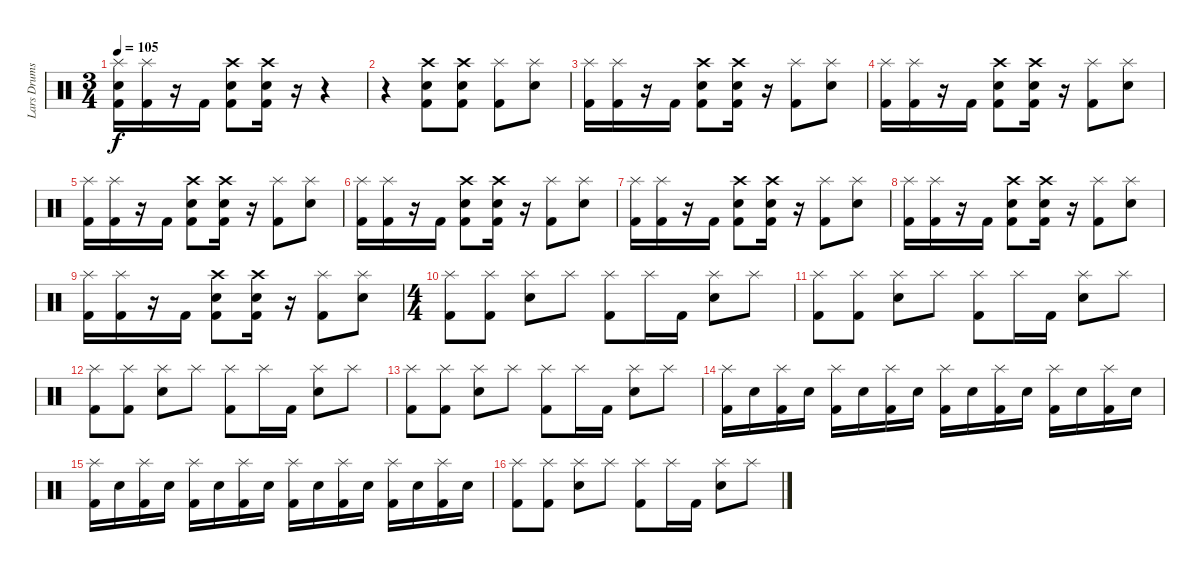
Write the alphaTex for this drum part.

\track ("Lars Drums" "Lars Drums") {instrument percussion}
\staff {score}
\articulation defaults
\ts (3 4)
\tempo 105
\clef neutral
\ks c
("Splash (hit)" "Snare (hit) 2" "Kick (hit) 2").16{dy f} ("Splash (hit)" "Kick (hit) 2").16 r.16 "Kick (hit) 2".16 ("Crash high (hit)" "Snare (hit) 2" "Kick (hit) 2").8 ("Crash high (hit)" "Snare (hit) 2" "Kick (hit) 2").16 r.16 r.4 |
r.4 ("Crash high (hit)" "Snare (hit) 2" "Kick (hit) 2").8 ("Crash high (hit)" "Snare (hit) 2" "Kick (hit) 2").8 ("Splash (hit)" "Kick (hit) 2").8 ("Splash (hit)" "Snare (hit) 2").8 |
("Splash (hit)" "Kick (hit) 2").16 ("Splash (hit)" "Kick (hit) 2").16 r.16 "Kick (hit) 2".16 ("Crash high (hit)" "Snare (hit) 2" "Kick (hit) 2").8 ("Crash high (hit)" "Snare (hit) 2" "Kick (hit) 2").16 r.16 ("Splash (hit)" "Kick (hit) 2").8 ("Splash (hit)" "Snare (hit) 2").8 |
("Splash (hit)" "Kick (hit) 2").16 ("Splash (hit)" "Kick (hit) 2").16 r.16 "Kick (hit) 2".16 ("Crash high (hit)" "Snare (hit) 2" "Kick (hit) 2").8 ("Crash high (hit)" "Snare (hit) 2" "Kick (hit) 2").16 r.16 ("Splash (hit)" "Kick (hit) 2").8 ("Splash (hit)" "Snare (hit) 2").8 |
("Splash (hit)" "Kick (hit) 2").16 ("Splash (hit)" "Kick (hit) 2").16 r.16 "Kick (hit) 2".16 ("Crash high (hit)" "Snare (hit) 2" "Kick (hit) 2").8 ("Crash high (hit)" "Snare (hit) 2" "Kick (hit) 2").16 r.16 ("Splash (hit)" "Kick (hit) 2").8 ("Splash (hit)" "Snare (hit) 2").8 |
("Splash (hit)" "Kick (hit) 2").16 ("Splash (hit)" "Kick (hit) 2").16 r.16 "Kick (hit) 2".16 ("Crash high (hit)" "Snare (hit) 2" "Kick (hit) 2").8 ("Crash high (hit)" "Snare (hit) 2" "Kick (hit) 2").16 r.16 ("Splash (hit)" "Kick (hit) 2").8 ("Splash (hit)" "Snare (hit) 2").8 |
("Splash (hit)" "Kick (hit) 2").16 ("Splash (hit)" "Kick (hit) 2").16 r.16 "Kick (hit) 2".16 ("Crash high (hit)" "Snare (hit) 2" "Kick (hit) 2").8 ("Crash high (hit)" "Snare (hit) 2" "Kick (hit) 2").16 r.16 ("Splash (hit)" "Kick (hit) 2").8 ("Splash (hit)" "Snare (hit) 2").8 |
("Splash (hit)" "Kick (hit) 2").16 ("Splash (hit)" "Kick (hit) 2").16 r.16 "Kick (hit) 2".16 ("Crash high (hit)" "Snare (hit) 2" "Kick (hit) 2").8 ("Crash high (hit)" "Snare (hit) 2" "Kick (hit) 2").16 r.16 ("Splash (hit)" "Kick (hit) 2").8 ("Splash (hit)" "Snare (hit) 2").8 |
("Splash (hit)" "Kick (hit) 2").16 ("Splash (hit)" "Kick (hit) 2").16 r.16 "Kick (hit) 2".16 ("Crash high (hit)" "Snare (hit) 2" "Kick (hit) 2").8 ("Crash high (hit)" "Snare (hit) 2" "Kick (hit) 2").16 r.16 ("Splash (hit)" "Kick (hit) 2").8 ("Splash (hit)" "Snare (hit) 2").8 |
\ts (4 4)
("Splash (hit)" "Kick (hit) 2").8 ("Splash (hit)" "Kick (hit) 2").8 ("Splash (hit)" "Snare (hit) 2").8 "Splash (hit)".8 ("Splash (hit)" "Kick (hit) 2").8 "Splash (hit)".16 "Kick (hit) 2".16 ("Splash (hit)" "Snare (hit) 2").8 "Splash (hit)".8 |
("Splash (hit)" "Kick (hit) 2").8 ("Splash (hit)" "Kick (hit) 2").8 ("Splash (hit)" "Snare (hit) 2").8 "Splash (hit)".8 ("Splash (hit)" "Kick (hit) 2").8 "Splash (hit)".16 "Kick (hit) 2".16 ("Splash (hit)" "Snare (hit) 2").8 "Splash (hit)".8 |
("Splash (hit)" "Kick (hit) 2").8 ("Splash (hit)" "Kick (hit) 2").8 ("Splash (hit)" "Snare (hit) 2").8 "Splash (hit)".8 ("Splash (hit)" "Kick (hit) 2").8 "Splash (hit)".16 "Kick (hit) 2".16 ("Splash (hit)" "Snare (hit) 2").8 "Splash (hit)".8 |
("Splash (hit)" "Kick (hit) 2").8 ("Splash (hit)" "Kick (hit) 2").8 ("Splash (hit)" "Snare (hit) 2").8 "Splash (hit)".8 ("Splash (hit)" "Kick (hit) 2").8 "Splash (hit)".16 "Kick (hit) 2".16 ("Splash (hit)" "Snare (hit) 2").8 "Splash (hit)".8 |
("Splash (hit)" "Kick (hit) 2").16 "Snare (hit) 2".16 ("Splash (hit)" "Kick (hit) 2").16 "Snare (hit) 2".16 ("Splash (hit)" "Kick (hit) 2").16 "Snare (hit) 2".16 ("Splash (hit)" "Kick (hit) 2").16 "Snare (hit) 2".16 ("Splash (hit)" "Kick (hit) 2").16 "Snare (hit) 2".16 ("Splash (hit)" "Kick (hit) 2").16 "Snare (hit) 2".16 ("Splash (hit)" "Kick (hit) 2").16 "Snare (hit) 2".16 ("Splash (hit)" "Kick (hit) 2").16 "Snare (hit) 2".16 |
("Splash (hit)" "Kick (hit) 2").16 "Snare (hit) 2".16 ("Splash (hit)" "Kick (hit) 2").16 "Snare (hit) 2".16 ("Splash (hit)" "Kick (hit) 2").16 "Snare (hit) 2".16 ("Splash (hit)" "Kick (hit) 2").16 "Snare (hit) 2".16 ("Splash (hit)" "Kick (hit) 2").16 "Snare (hit) 2".16 ("Splash (hit)" "Kick (hit) 2").16 "Snare (hit) 2".16 ("Splash (hit)" "Kick (hit) 2").16 "Snare (hit) 2".16 ("Splash (hit)" "Kick (hit) 2").16 "Snare (hit) 2".16 |
("Splash (hit)" "Kick (hit) 2").8 ("Splash (hit)" "Kick (hit) 2").8 ("Splash (hit)" "Snare (hit) 2").8 "Splash (hit)".8 ("Splash (hit)" "Kick (hit) 2").8 "Splash (hit)".16 "Kick (hit) 2".16 ("Splash (hit)" "Snare (hit) 2").8 "Splash (hit)".8
